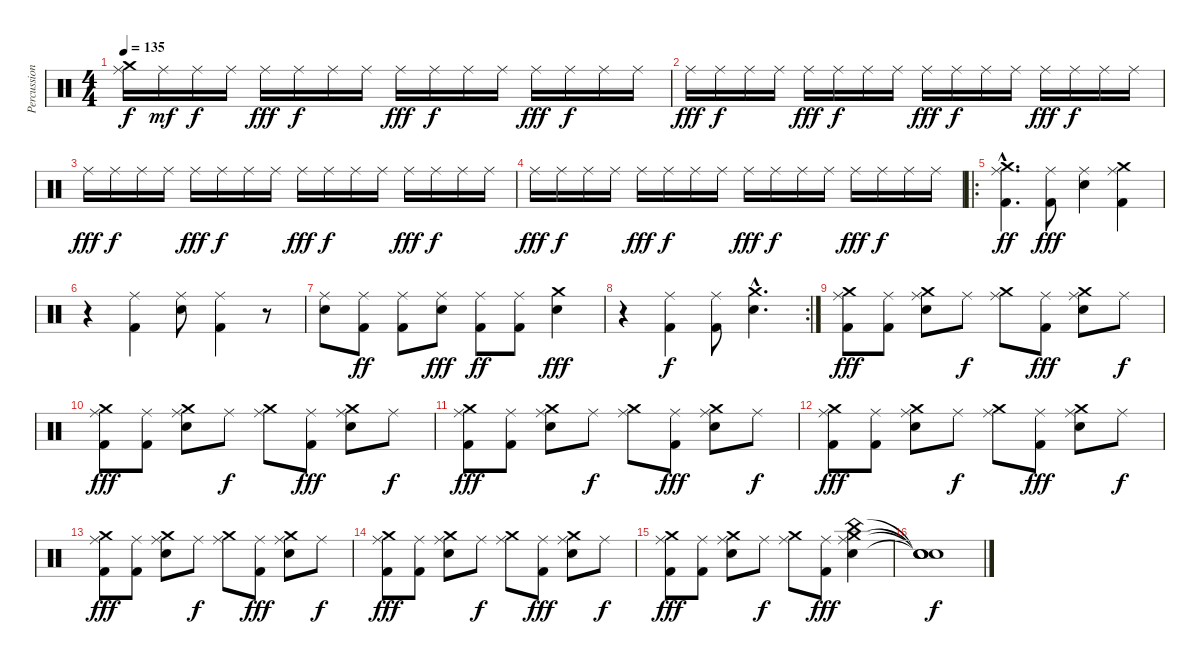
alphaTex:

\track ("Percussioni" "Percussion") {instrument percussion}
\staff {score}
\articulation defaults
\ts (4 4)
\tempo 135
\clef neutral
\ks c
("Crash medium (hit)" "Ride (middle)").16{dy f} "Ride (middle)".16{dy mf} "Ride (middle)".16{dy f} "Ride (middle)".16 "Ride (middle)".16{dy fff} "Ride (middle)".16{dy f} "Ride (middle)".16 "Ride (middle)".16 "Ride (middle)".16{dy fff} "Ride (middle)".16{dy f} "Ride (middle)".16 "Ride (middle)".16 "Ride (middle)".16{dy fff} "Ride (middle)".16{dy f} "Ride (middle)".16 "Ride (middle)".16 |
"Ride (middle)".16{dy fff} "Ride (middle)".16{dy f} "Ride (middle)".16 "Ride (middle)".16 "Ride (middle)".16{dy fff} "Ride (middle)".16{dy f} "Ride (middle)".16 "Ride (middle)".16 "Ride (middle)".16{dy fff} "Ride (middle)".16{dy f} "Ride (middle)".16 "Ride (middle)".16 "Ride (middle)".16{dy fff} "Ride (middle)".16{dy f} "Ride (middle)".16 "Ride (middle)".16 |
"Ride (middle)".16{dy fff} "Ride (middle)".16{dy f} "Ride (middle)".16 "Ride (middle)".16 "Ride (middle)".16{dy fff} "Ride (middle)".16{dy f} "Ride (middle)".16 "Ride (middle)".16 "Ride (middle)".16{dy fff} "Ride (middle)".16{dy f} "Ride (middle)".16 "Ride (middle)".16 "Ride (middle)".16{dy fff} "Ride (middle)".16{dy f} "Ride (middle)".16 "Ride (middle)".16 |
"Ride (middle)".16{dy fff} "Ride (middle)".16{dy f} "Ride (middle)".16 "Ride (middle)".16 "Ride (middle)".16{dy fff} "Ride (middle)".16{dy f} "Ride (middle)".16 "Ride (middle)".16 "Ride (middle)".16{dy fff} "Ride (middle)".16{dy f} "Ride (middle)".16 "Ride (middle)".16 "Ride (middle)".16{dy fff} "Ride (middle)".16{dy f} "Ride (middle)".16 "Ride (middle)".16 |
\ro
("Ride (middle)"{hac} "Kick (hit) 2"{hac} "Crash medium (hit)"{hac}).4{d dy ff} ("Ride (middle)" "Kick (hit) 2").8{dy fff} ("Ride (middle)" "Snare (hit) 2").4 ("Ride (middle)" "Kick (hit) 2" "Crash medium (hit)").4 |
r.4 ("Ride (middle)" "Kick (hit) 2").4 ("Ride (middle)" "Snare (hit) 2").8 ("Ride (middle)" "Kick (hit) 2").4 r.8 |
("Ride (middle)" "Snare (hit) 2").8 ("Ride (middle)" "Kick (hit) 2").8{dy ff} ("Ride (middle)" "Kick (hit) 2").8 ("Ride (middle)" "Snare (hit) 2").8{dy fff} ("Ride (middle)" "Kick (hit) 2").8{dy ff} ("Ride (middle)" "Kick (hit) 2").8 ("Crash medium (hit)" "Snare (hit) 2").4{dy fff} |
\rc 2
r.4 ("Ride (middle)" "Kick (hit) 2").4{dy f} ("Ride (middle)" "Kick (hit) 2").8 ("Crash medium (hit)"{hac} "Snare (hit) 2"{hac}).4{d} |
("Crash medium (hit)" "Kick (hit) 2" "Ride (middle)").8{dy fff} ("Kick (hit) 2" "Ride (middle)").8 ("Crash medium (hit)" "Snare (hit) 2" "Ride (middle)").8 "Ride (middle)".8{dy f} ("Crash medium (hit)" "Ride (middle)").8 ("Kick (hit) 2" "Ride (middle)").8{dy fff} ("Crash medium (hit)" "Snare (hit) 2" "Ride (middle)").8 "Ride (middle)".8{dy f} |
("Crash medium (hit)" "Kick (hit) 2" "Ride (middle)").8{dy fff} ("Kick (hit) 2" "Ride (middle)").8 ("Crash medium (hit)" "Snare (hit) 2" "Ride (middle)").8 "Ride (middle)".8{dy f} ("Crash medium (hit)" "Ride (middle)").8 ("Kick (hit) 2" "Ride (middle)").8{dy fff} ("Crash medium (hit)" "Snare (hit) 2" "Ride (middle)").8 "Ride (middle)".8{dy f} |
("Crash medium (hit)" "Kick (hit) 2" "Ride (middle)").8{dy fff} ("Kick (hit) 2" "Ride (middle)").8 ("Crash medium (hit)" "Snare (hit) 2" "Ride (middle)").8 "Ride (middle)".8{dy f} ("Crash medium (hit)" "Ride (middle)").8 ("Kick (hit) 2" "Ride (middle)").8{dy fff} ("Crash medium (hit)" "Snare (hit) 2" "Ride (middle)").8 "Ride (middle)".8{dy f} |
("Crash medium (hit)" "Kick (hit) 2" "Ride (middle)").8{dy fff} ("Kick (hit) 2" "Ride (middle)").8 ("Crash medium (hit)" "Snare (hit) 2" "Ride (middle)").8 "Ride (middle)".8{dy f} ("Crash medium (hit)" "Ride (middle)").8 ("Kick (hit) 2" "Ride (middle)").8{dy fff} ("Crash medium (hit)" "Snare (hit) 2" "Ride (middle)").8 "Ride (middle)".8{dy f} |
("Crash medium (hit)" "Kick (hit) 2" "Ride (middle)").8{dy fff} ("Kick (hit) 2" "Ride (middle)").8 ("Crash medium (hit)" "Snare (hit) 2" "Ride (middle)").8 "Ride (middle)".8{dy f} ("Crash medium (hit)" "Ride (middle)").8 ("Kick (hit) 2" "Ride (middle)").8{dy fff} ("Crash medium (hit)" "Snare (hit) 2" "Ride (middle)").8 "Ride (middle)".8{dy f} |
("Crash medium (hit)" "Kick (hit) 2" "Ride (middle)").8{dy fff} ("Kick (hit) 2" "Ride (middle)").8 ("Crash medium (hit)" "Snare (hit) 2" "Ride (middle)").8 "Ride (middle)".8{dy f} ("Crash medium (hit)" "Ride (middle)").8 ("Kick (hit) 2" "Ride (middle)").8{dy fff} ("Crash medium (hit)" "Snare (hit) 2" "Ride (middle)").8 "Ride (middle)".8{dy f} |
("Crash medium (hit)" "Kick (hit) 2" "Ride (middle)").8{dy fff} ("Kick (hit) 2" "Ride (middle)").8 ("Crash medium (hit)" "Snare (hit) 2" "Ride (middle)").8 "Ride (middle)".8{dy f} ("Crash medium (hit)" "Ride (middle)").8 ("Kick (hit) 2" "Ride (middle)").8{dy fff} ("Crash medium (hit)" "Snare (hit) 2" "Ride (middle)" "China (hit)").4 |
("Snare (hit)"{t} "Snare (hit)"{t} "Snare (hit)"{t} "Snare (hit)"{t}).1{dy f}
